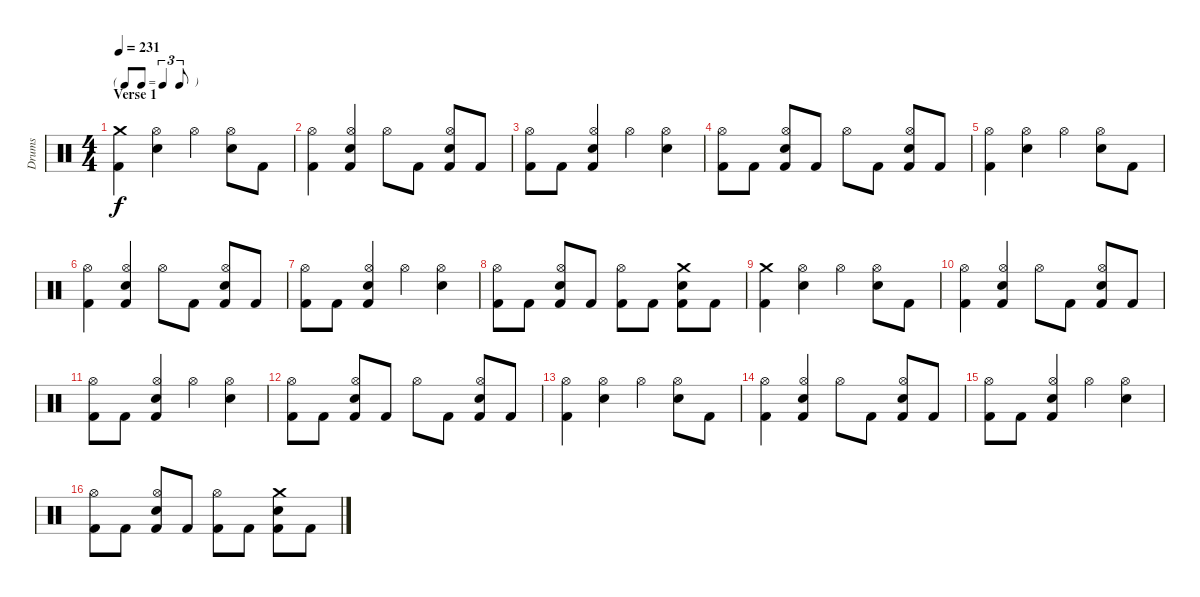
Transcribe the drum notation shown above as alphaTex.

\track ("Drums" "Drums") {instrument percussion}
\staff {score}
\articulation defaults
\ts (4 4)
\tf triplet8th
\section ("" "Verse 1")
\tempo 231
\clef neutral
\ks c
("Crash medium (hit)" "Kick (hit) 2").4{dy f} ("Hi-Hat (open)" "Electric Snare (hit)").4 "Hi-Hat (open)".4 ("Hi-Hat (open)" "Electric Snare (hit)").8 "Kick (hit) 2".8 |
("Hi-Hat (open)" "Kick (hit) 2").4 ("Hi-Hat (open)" "Electric Snare (hit)" "Kick (hit) 2").4 "Hi-Hat (open)".8 "Kick (hit) 2".8 ("Hi-Hat (open)" "Electric Snare (hit)" "Kick (hit) 2").8 "Kick (hit) 2".8 |
("Hi-Hat (open)" "Kick (hit) 2").8 "Kick (hit) 2".8 ("Hi-Hat (open)" "Electric Snare (hit)" "Kick (hit) 2").4 "Hi-Hat (open)".4 ("Hi-Hat (open)" "Electric Snare (hit)").4 |
("Hi-Hat (open)" "Kick (hit) 2").8 "Kick (hit) 2".8 ("Hi-Hat (open)" "Electric Snare (hit)" "Kick (hit) 2").8 "Kick (hit) 2".8 "Hi-Hat (open)".8 "Kick (hit) 2".8 ("Hi-Hat (open)" "Electric Snare (hit)" "Kick (hit) 2").8 "Kick (hit) 2".8 |
("Hi-Hat (open)" "Kick (hit) 2").4 ("Hi-Hat (open)" "Electric Snare (hit)").4 "Hi-Hat (open)".4 ("Hi-Hat (open)" "Electric Snare (hit)").8 "Kick (hit) 2".8 |
("Hi-Hat (open)" "Kick (hit) 2").4 ("Hi-Hat (open)" "Electric Snare (hit)" "Kick (hit) 2").4 "Hi-Hat (open)".8 "Kick (hit) 2".8 ("Hi-Hat (open)" "Electric Snare (hit)" "Kick (hit) 2").8 "Kick (hit) 2".8 |
("Hi-Hat (open)" "Kick (hit) 2").8 "Kick (hit) 2".8 ("Hi-Hat (open)" "Electric Snare (hit)" "Kick (hit) 2").4 "Hi-Hat (open)".4 ("Hi-Hat (open)" "Electric Snare (hit)").4 |
("Hi-Hat (open)" "Kick (hit) 2").8 "Kick (hit) 2".8 ("Hi-Hat (open)" "Electric Snare (hit)" "Kick (hit) 2").8 "Kick (hit) 2".8 ("Hi-Hat (open)" "Kick (hit) 2").8 "Kick (hit) 2".8 ("Crash medium (hit)" "Electric Snare (hit)" "Kick (hit) 2").8 "Kick (hit) 2".8 |
("Crash medium (hit)" "Kick (hit) 2").4 ("Hi-Hat (open)" "Electric Snare (hit)").4 "Hi-Hat (open)".4 ("Hi-Hat (open)" "Electric Snare (hit)").8 "Kick (hit) 2".8 |
("Hi-Hat (open)" "Kick (hit) 2").4 ("Hi-Hat (open)" "Electric Snare (hit)" "Kick (hit) 2").4 "Hi-Hat (open)".8 "Kick (hit) 2".8 ("Hi-Hat (open)" "Electric Snare (hit)" "Kick (hit) 2").8 "Kick (hit) 2".8 |
("Hi-Hat (open)" "Kick (hit) 2").8 "Kick (hit) 2".8 ("Hi-Hat (open)" "Electric Snare (hit)" "Kick (hit) 2").4 "Hi-Hat (open)".4 ("Hi-Hat (open)" "Electric Snare (hit)").4 |
("Hi-Hat (open)" "Kick (hit) 2").8 "Kick (hit) 2".8 ("Hi-Hat (open)" "Electric Snare (hit)" "Kick (hit) 2").8 "Kick (hit) 2".8 "Hi-Hat (open)".8 "Kick (hit) 2".8 ("Hi-Hat (open)" "Electric Snare (hit)" "Kick (hit) 2").8 "Kick (hit) 2".8 |
("Hi-Hat (open)" "Kick (hit) 2").4 ("Hi-Hat (open)" "Electric Snare (hit)").4 "Hi-Hat (open)".4 ("Hi-Hat (open)" "Electric Snare (hit)").8 "Kick (hit) 2".8 |
("Hi-Hat (open)" "Kick (hit) 2").4 ("Hi-Hat (open)" "Electric Snare (hit)" "Kick (hit) 2").4 "Hi-Hat (open)".8 "Kick (hit) 2".8 ("Hi-Hat (open)" "Electric Snare (hit)" "Kick (hit) 2").8 "Kick (hit) 2".8 |
("Hi-Hat (open)" "Kick (hit) 2").8 "Kick (hit) 2".8 ("Hi-Hat (open)" "Electric Snare (hit)" "Kick (hit) 2").4 "Hi-Hat (open)".4 ("Hi-Hat (open)" "Electric Snare (hit)").4 |
("Hi-Hat (open)" "Kick (hit) 2").8 "Kick (hit) 2".8 ("Hi-Hat (open)" "Electric Snare (hit)" "Kick (hit) 2").8 "Kick (hit) 2".8 ("Hi-Hat (open)" "Kick (hit) 2").8 "Kick (hit) 2".8 ("Crash medium (hit)" "Electric Snare (hit)" "Kick (hit) 2").8 "Kick (hit) 2".8
